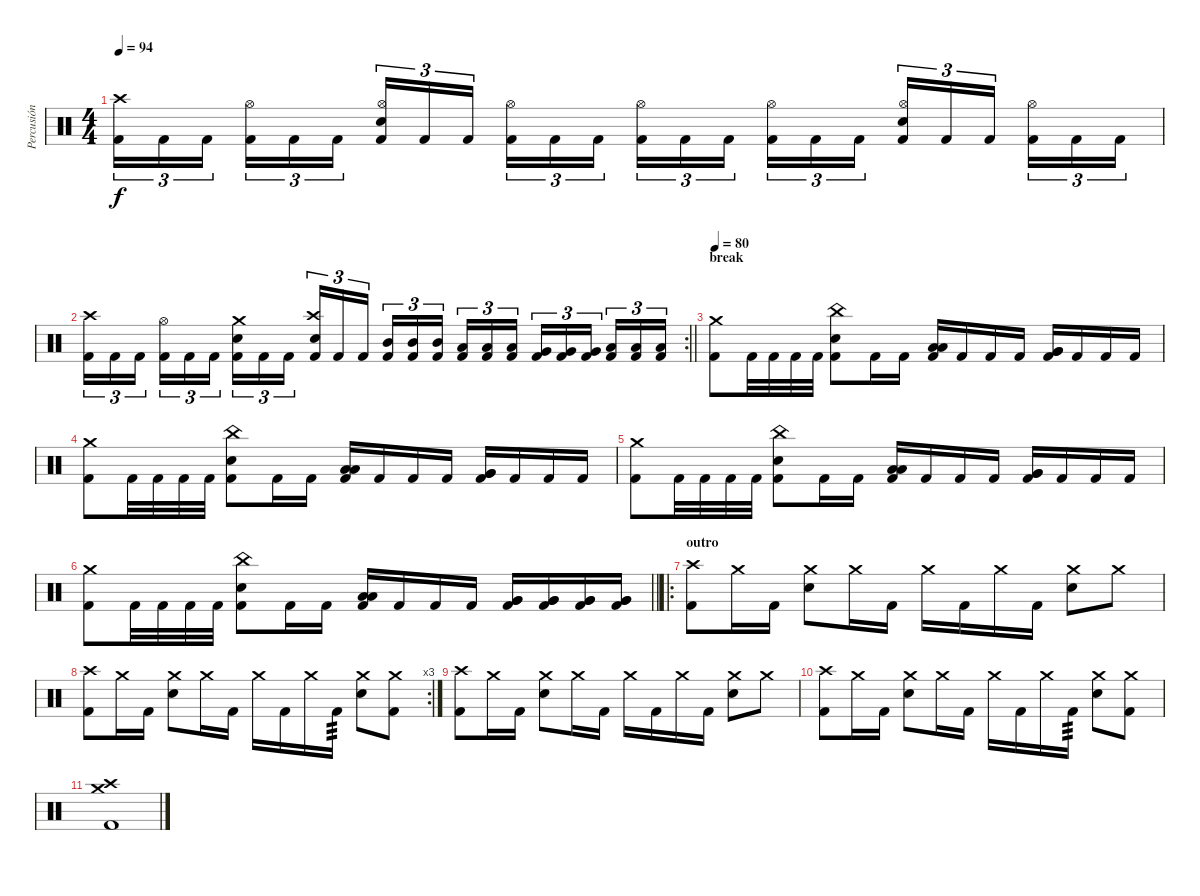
\track ("Percusión" "Percusión") {instrument percussion}
\staff
\articulation defaults
\ts (4 4)
\tempo 94
\clef neutral
\ks c
("Kick (hit) 2" "Crash high (hit)").16{tu (3 2) dy f} "Kick (hit) 2".16{tu (3 2)} "Kick (hit) 2".16{tu (3 2) beam splitsecondary} ("Kick (hit) 2" "Hi-Hat (open)").16{tu (3 2)} "Kick (hit) 2".16{tu (3 2)} "Kick (hit) 2".16{tu (3 2)} ("Kick (hit) 2" "Hi-Hat (open)" "Electric Snare (hit)").16{tu (3 2)} "Kick (hit) 2".16{tu (3 2)} "Kick (hit) 2".16{tu (3 2) beam splitsecondary} ("Kick (hit) 2" "Hi-Hat (open)").16{tu (3 2)} "Kick (hit) 2".16{tu (3 2)} "Kick (hit) 2".16{tu (3 2)} ("Kick (hit) 2" "Hi-Hat (open)").16{tu (3 2)} "Kick (hit) 2".16{tu (3 2)} "Kick (hit) 2".16{tu (3 2) beam splitsecondary} ("Kick (hit) 2" "Hi-Hat (open)").16{tu (3 2)} "Kick (hit) 2".16{tu (3 2)} "Kick (hit) 2".16{tu (3 2)} ("Kick (hit) 2" "Hi-Hat (open)" "Electric Snare (hit)").16{tu (3 2)} "Kick (hit) 2".16{tu (3 2)} "Kick (hit) 2".16{tu (3 2) beam splitsecondary} ("Kick (hit) 2" "Hi-Hat (open)").16{tu (3 2)} "Kick (hit) 2".16{tu (3 2)} "Kick (hit) 2".16{tu (3 2)} |
\rc 2
\barLineRight lightlight
("Kick (hit) 2" "Crash high (hit)").16{tu (3 2)} "Kick (hit) 2".16{tu (3 2)} "Kick (hit) 2".16{tu (3 2) beam splitsecondary} ("Kick (hit) 2" "Hi-Hat (open)").16{tu (3 2)} "Kick (hit) 2".16{tu (3 2)} "Kick (hit) 2".16{tu (3 2)} ("Kick (hit) 2" "Crash medium (hit)" "Electric Snare (hit)").16{tu (3 2)} "Kick (hit) 2".16{tu (3 2)} "Kick (hit) 2".16{tu (3 2) beam splitsecondary} ("Kick (hit) 2" "Crash high (hit)" "Electric Snare (hit)").16{tu (3 2)} "Kick (hit) 2".16{tu (3 2)} "Kick (hit) 2".16{tu (3 2)} ("Kick (hit) 2" "Mid Tom (hit)").16{tu (3 2)} ("Kick (hit) 2" "Mid Tom (hit)").16{tu (3 2)} ("Kick (hit) 2" "Mid Tom (hit)").16{tu (3 2) beam splitsecondary} ("Kick (hit) 2" "Low Tom (hit)").16{tu (3 2)} ("Kick (hit) 2" "Low Tom (hit)").16{tu (3 2)} ("Kick (hit) 2" "Low Tom (hit)").16{tu (3 2)} ("Kick (hit) 2" "Very Low Tom (hit)").16{tu (3 2)} ("Kick (hit) 2" "Very Low Tom (hit)").16{tu (3 2)} ("Kick (hit) 2" "Very Low Tom (hit)").16{tu (3 2) beam splitsecondary} ("Kick (hit) 2" "Low Floor Tom (hit)").16{tu (3 2)} ("Kick (hit) 2" "Low Floor Tom (hit)").16{tu (3 2)} ("Kick (hit) 2" "Low Floor Tom (hit)").16{tu (3 2)} |
\section ("" "break")
\tempo 80
("Kick (hit) 2" "Crash medium (hit)").8 "Kick (hit) 2".32 "Kick (hit) 2".32 "Kick (hit) 2".32 "Kick (hit) 2".32 ("Kick (hit) 2" "China (hit)" "Electric Snare (hit)").8 "Kick (hit) 2".16 "Kick (hit) 2".16 ("Kick (hit) 2" "Low Tom (hit)" "Low Tom (hit)").16 "Kick (hit) 2".16 "Kick (hit) 2".16 "Kick (hit) 2".16 ("Kick (hit) 2" "Very Low Tom (hit)" "Very Low Tom (hit)").16 "Kick (hit) 2".16 "Kick (hit) 2".16 "Kick (hit) 2".16 |
("Kick (hit) 2" "Crash medium (hit)").8 "Kick (hit) 2".32 "Kick (hit) 2".32 "Kick (hit) 2".32 "Kick (hit) 2".32 ("Kick (hit) 2" "China (hit)" "Electric Snare (hit)").8 "Kick (hit) 2".16 "Kick (hit) 2".16 ("Kick (hit) 2" "Low Tom (hit)" "Low Tom (hit)").16 "Kick (hit) 2".16 "Kick (hit) 2".16 "Kick (hit) 2".16 ("Kick (hit) 2" "Very Low Tom (hit)" "Very Low Tom (hit)").16 "Kick (hit) 2".16 "Kick (hit) 2".16 "Kick (hit) 2".16 |
("Kick (hit) 2" "Crash medium (hit)").8 "Kick (hit) 2".32 "Kick (hit) 2".32 "Kick (hit) 2".32 "Kick (hit) 2".32 ("Kick (hit) 2" "China (hit)" "Electric Snare (hit)").8 "Kick (hit) 2".16 "Kick (hit) 2".16 ("Kick (hit) 2" "Low Tom (hit)" "Low Tom (hit)").16 "Kick (hit) 2".16 "Kick (hit) 2".16 "Kick (hit) 2".16 ("Kick (hit) 2" "Very Low Tom (hit)" "Very Low Tom (hit)").16 "Kick (hit) 2".16 "Kick (hit) 2".16 "Kick (hit) 2".16 |
\barLineRight lightlight
("Kick (hit) 2" "Crash medium (hit)").8 "Kick (hit) 2".32 "Kick (hit) 2".32 "Kick (hit) 2".32 "Kick (hit) 2".32 ("Kick (hit) 2" "China (hit)" "Electric Snare (hit)").8 "Kick (hit) 2".16 "Kick (hit) 2".16 ("Kick (hit) 2" "Low Tom (hit)" "Low Tom (hit)").16 "Kick (hit) 2".16 "Kick (hit) 2".16 "Kick (hit) 2".16 ("Kick (hit) 2" "Very Low Tom (hit)" "Very Low Tom (hit)").16 ("Kick (hit) 2" "Very Low Tom (hit)" "Very Low Tom (hit)").16 ("Kick (hit) 2" "Very Low Tom (hit)" "Very Low Tom (hit)").16 ("Kick (hit) 2" "Very Low Tom (hit)" "Very Low Tom (hit)").16 |
\ro
\section ("" "outro")
("Kick (hit) 2" "Crash high (hit)").8 "Crash medium (hit)".16 "Kick (hit) 2".16 ("Crash medium (hit)" "Electric Snare (hit)").8 "Crash medium (hit)".16 "Kick (hit) 2".16 "Crash medium (hit)".16 "Kick (hit) 2".16 "Crash medium (hit)".16 "Kick (hit) 2".16 ("Crash medium (hit)" "Electric Snare (hit)").8 "Crash medium (hit)".8 |
\rc 3
("Kick (hit) 2" "Crash high (hit)").8 "Crash medium (hit)".16 "Kick (hit) 2".16 ("Crash medium (hit)" "Electric Snare (hit)").8 "Crash medium (hit)".16 "Kick (hit) 2".16 "Crash medium (hit)".16 "Kick (hit) 2".16 "Crash medium (hit)".16 "Kick (hit) 2".16{tp 3} ("Crash medium (hit)" "Electric Snare (hit)").8 ("Kick (hit) 2" "Crash medium (hit)").8 |
("Kick (hit) 2" "Crash high (hit)").8 "Crash medium (hit)".16 "Kick (hit) 2".16 ("Crash medium (hit)" "Electric Snare (hit)").8 "Crash medium (hit)".16 "Kick (hit) 2".16 "Crash medium (hit)".16 "Kick (hit) 2".16 "Crash medium (hit)".16 "Kick (hit) 2".16 ("Crash medium (hit)" "Electric Snare (hit)").8 "Crash medium (hit)".8 |
("Kick (hit) 2" "Crash high (hit)").8 "Crash medium (hit)".16 "Kick (hit) 2".16 ("Crash medium (hit)" "Electric Snare (hit)").8 "Crash medium (hit)".16 "Kick (hit) 2".16 "Crash medium (hit)".16 "Kick (hit) 2".16 "Crash medium (hit)".16 "Kick (hit) 2".16{tp 3} ("Crash medium (hit)" "Electric Snare (hit)").8 ("Kick (hit) 2" "Crash medium (hit)").8 |
("Kick (hit) 2" "Crash medium (hit)" "Crash high (hit)").1
